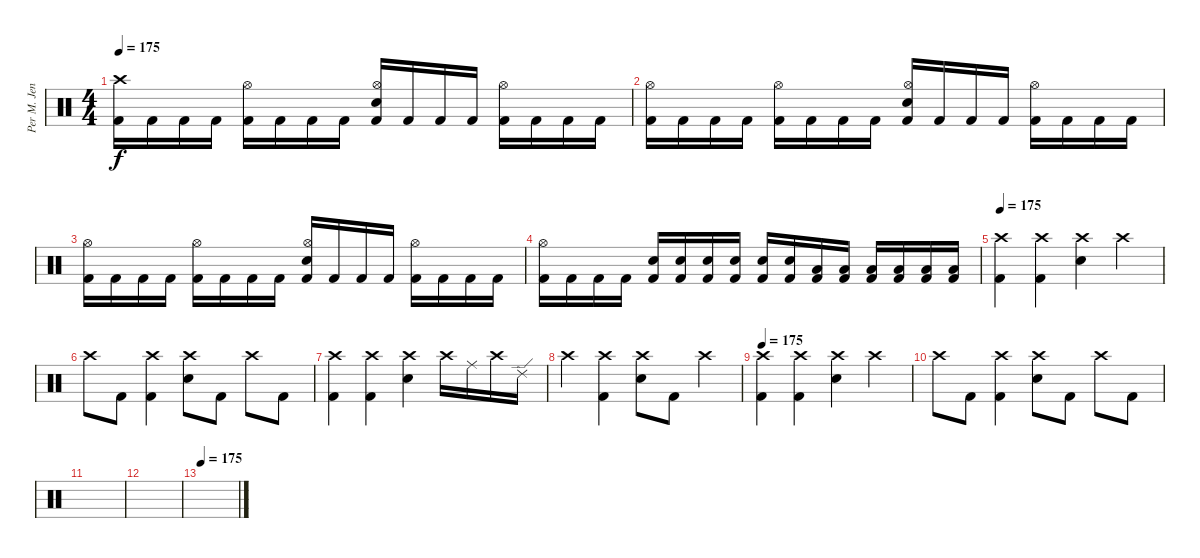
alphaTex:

\track ("Per M. Jensen (Ex-Drums)" "Per M. Jen") {instrument percussion}
\staff {score}
\articulation defaults
\ts (4 4)
\tempo 175
\clef neutral
\ks c
("Crash high (hit)" "Kick (hit) 2").16{dy f} "Kick (hit) 2".16 "Kick (hit) 2".16 "Kick (hit) 2".16 ("Hi-Hat (open)" "Kick (hit) 2").16 "Kick (hit) 2".16 "Kick (hit) 2".16 "Kick (hit) 2".16 ("Hi-Hat (open)" "Snare (hit) 2" "Kick (hit) 2").16 "Kick (hit) 2".16 "Kick (hit) 2".16 "Kick (hit) 2".16 ("Hi-Hat (open)" "Kick (hit) 2").16 "Kick (hit) 2".16 "Kick (hit) 2".16 "Kick (hit) 2".16 |
("Hi-Hat (open)" "Kick (hit) 2").16 "Kick (hit) 2".16 "Kick (hit) 2".16 "Kick (hit) 2".16 ("Hi-Hat (open)" "Kick (hit) 2").16 "Kick (hit) 2".16 "Kick (hit) 2".16 "Kick (hit) 2".16 ("Hi-Hat (open)" "Snare (hit) 2" "Kick (hit) 2").16 "Kick (hit) 2".16 "Kick (hit) 2".16 "Kick (hit) 2".16 ("Hi-Hat (open)" "Kick (hit) 2").16 "Kick (hit) 2".16 "Kick (hit) 2".16 "Kick (hit) 2".16 |
("Hi-Hat (open)" "Kick (hit) 2").16 "Kick (hit) 2".16 "Kick (hit) 2".16 "Kick (hit) 2".16 ("Hi-Hat (open)" "Kick (hit) 2").16 "Kick (hit) 2".16 "Kick (hit) 2".16 "Kick (hit) 2".16 ("Hi-Hat (open)" "Snare (hit) 2" "Kick (hit) 2").16 "Kick (hit) 2".16 "Kick (hit) 2".16 "Kick (hit) 2".16 ("Hi-Hat (open)" "Kick (hit) 2").16 "Kick (hit) 2".16 "Kick (hit) 2".16 "Kick (hit) 2".16 |
("Hi-Hat (open)" "Kick (hit) 2").16 "Kick (hit) 2".16 "Kick (hit) 2".16 "Kick (hit) 2".16 ("Snare (hit) 2" "Kick (hit) 2").16 ("Snare (hit) 2" "Kick (hit) 2").16 ("Snare (hit) 2" "Kick (hit) 2").16 ("Snare (hit) 2" "Kick (hit) 2").16 ("Snare (hit) 2" "Kick (hit) 2").16 ("Snare (hit) 2" "Kick (hit) 2").16 ("Low Tom (hit)" "Kick (hit) 2").16 ("Low Tom (hit)" "Kick (hit) 2").16 ("Low Floor Tom (hit)" "Kick (hit) 2").16 ("Low Floor Tom (hit)" "Kick (hit) 2").16 ("Low Floor Tom (hit)" "Kick (hit) 2").16 ("Low Floor Tom (hit)" "Kick (hit) 2").16 |
\tempo 175
("Crash high (hit)" "Kick (hit) 2").4 ("Crash high (hit)" "Kick (hit) 2").4 ("Crash high (hit)" "Snare (hit) 2").4 "Crash high (hit)".4 |
"Crash high (hit)".8 "Kick (hit) 2".8 ("Crash high (hit)" "Kick (hit) 2").4 ("Crash high (hit)" "Snare (hit) 2").8 "Kick (hit) 2".8 "Crash high (hit)".8 "Kick (hit) 2".8 |
("Crash high (hit)" "Kick (hit) 2").4 ("Crash high (hit)" "Kick (hit) 2").4 ("Crash high (hit)" "Snare (hit) 2").4 "Crash high (hit)".16 "Ride (middle)".16 "Crash high (hit)".16 "Ride (edge) 2".16 |
"Crash high (hit)".4 ("Crash high (hit)" "Kick (hit) 2").4 ("Crash high (hit)" "Snare (hit) 2").8 "Kick (hit) 2".8 "Crash high (hit)".4 |
\tempo 175
("Crash high (hit)" "Kick (hit) 2").4 ("Crash high (hit)" "Kick (hit) 2").4 ("Crash high (hit)" "Snare (hit) 2").4 "Crash high (hit)".4 |
"Crash high (hit)".8 "Kick (hit) 2".8 ("Crash high (hit)" "Kick (hit) 2").4 ("Crash high (hit)" "Snare (hit) 2").8 "Kick (hit) 2".8 "Crash high (hit)".8 "Kick (hit) 2".8 |
|
|
\tempo 175
